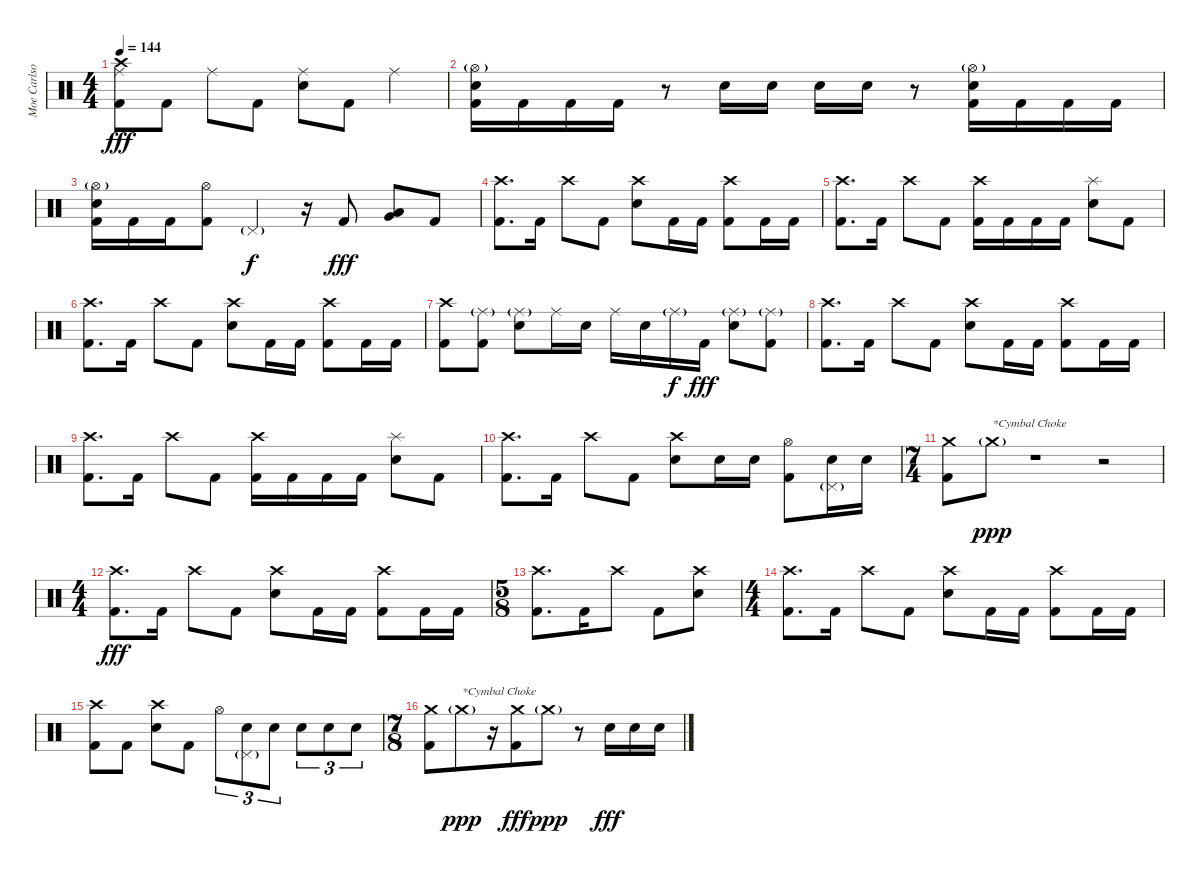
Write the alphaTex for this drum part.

\track ("Moe Carlson" "Moe Carlso") {solo instrument percussion}
\staff {score}
\articulation defaults
\ts (4 4)
\tempo 144
\clef neutral
\ks c
("Crash high (hit)" "Ride (middle)" "Kick (hit) 2").8{dy fff} "Kick (hit) 2".8 "Ride (middle)".8 "Kick (hit) 2".8 ("Ride (middle)" "Electric Snare (hit)").8 "Kick (hit) 2".8 "Ride (middle)".4 |
("Hi-Hat (open)"{g} "Electric Snare (hit)" "Kick (hit) 2").16 "Kick (hit) 2".16 "Kick (hit) 2".16 "Kick (hit) 2".16 r.8 "Electric Snare (hit)".16 "Electric Snare (hit)".16 "Electric Snare (hit)".16 "Electric Snare (hit)".16 r.8 ("Hi-Hat (open)"{g} "Electric Snare (hit)" "Kick (hit) 2").16 "Kick (hit) 2".16 "Kick (hit) 2".16 "Kick (hit) 2".16 |
("Hi-Hat (open)"{g} "Electric Snare (hit)" "Kick (hit) 2").16 "Kick (hit) 2".16 "Kick (hit) 2".16 ("Hi-Hat (open)" "Kick (hit) 2").8 "Pedal Hi-Hat (hit)"{g}.4{dy f} r.16 "Kick (hit) 2".8{dy fff} ("Very Low Tom (hit)" "Low Floor Tom (hit)").8 "Kick (hit) 2".8 |
("Crash high (hit)" "Kick (hit) 2").8{d} "Kick (hit) 2".16 "Crash high (hit)".8 "Kick (hit) 2".8 ("Crash high (hit)" "Electric Snare (hit)").8 "Kick (hit) 2".16 "Kick (hit) 2".16 ("Crash high (hit)" "Kick (hit) 2").8 "Kick (hit) 2".16 "Kick (hit) 2".16 |
("Crash high (hit)" "Kick (hit) 2").8{d} "Kick (hit) 2".16 "Crash high (hit)".8 "Kick (hit) 2".8 ("Crash high (hit)" "Kick (hit) 2").16 "Kick (hit) 2".16 "Kick (hit) 2".16 "Kick (hit) 2".16 ("Splash (hit)" "Electric Snare (hit)").8 "Kick (hit) 2".8 |
("Crash high (hit)" "Kick (hit) 2").8{d} "Kick (hit) 2".16 "Crash high (hit)".8 "Kick (hit) 2".8 ("Crash high (hit)" "Electric Snare (hit)").8 "Kick (hit) 2".16 "Kick (hit) 2".16 ("Crash high (hit)" "Kick (hit) 2").8 "Kick (hit) 2".16 "Kick (hit) 2".16 |
("Crash high (hit)" "Kick (hit) 2").8 ("Ride (middle)"{g} "Kick (hit) 2").8 ("Ride (middle)"{g} "Electric Snare (hit)").8 "Ride (middle)".16 "Electric Snare (hit)".16 "Ride (middle)".16 "Electric Snare (hit)".16 "Ride (middle)"{g}.16{dy f} "Kick (hit) 2".16{dy fff} ("Ride (middle)"{g} "Electric Snare (hit)").8 ("Ride (middle)"{g} "Kick (hit) 2").8 |
("Crash high (hit)" "Kick (hit) 2").8{d} "Kick (hit) 2".16 "Crash high (hit)".8 "Kick (hit) 2".8 ("Crash high (hit)" "Electric Snare (hit)").8 "Kick (hit) 2".16 "Kick (hit) 2".16 ("Crash high (hit)" "Kick (hit) 2").8 "Kick (hit) 2".16 "Kick (hit) 2".16 |
("Crash high (hit)" "Kick (hit) 2").8{d} "Kick (hit) 2".16 "Crash high (hit)".8 "Kick (hit) 2".8 ("Crash high (hit)" "Kick (hit) 2").16 "Kick (hit) 2".16 "Kick (hit) 2".16 "Kick (hit) 2".16 ("Splash (hit)" "Electric Snare (hit)").8 "Kick (hit) 2".8 |
("Crash high (hit)" "Kick (hit) 2").8{d} "Kick (hit) 2".16 "Crash high (hit)".8 "Kick (hit) 2".8 ("Crash high (hit)" "Electric Snare (hit)").8 "Electric Snare (hit)".16 "Electric Snare (hit)".16 ("Hi-Hat (open)" "Kick (hit) 2").8 ("Electric Snare (hit)" "Pedal Hi-Hat (hit)"{g}).16 "Electric Snare (hit)".16 |
\ts (7 4)
("Crash medium (hit)" "Kick (hit) 2").8 "Crash medium (hit)"{g}.8{txt "*Cymbal Choke" dy ppp} r.1 r.2 |
\ts (4 4)
("Crash high (hit)" "Kick (hit) 2").8{d dy fff} "Kick (hit) 2".16 "Crash high (hit)".8 "Kick (hit) 2".8 ("Crash high (hit)" "Electric Snare (hit)").8 "Kick (hit) 2".16 "Kick (hit) 2".16 ("Crash high (hit)" "Kick (hit) 2").8 "Kick (hit) 2".16 "Kick (hit) 2".16 |
\ts (5 8)
("Crash high (hit)" "Kick (hit) 2").8{d} "Kick (hit) 2".16 "Crash high (hit)".8 "Kick (hit) 2".8 ("Crash high (hit)" "Electric Snare (hit)").8 |
\ts (4 4)
("Crash high (hit)" "Kick (hit) 2").8{d} "Kick (hit) 2".16 "Crash high (hit)".8 "Kick (hit) 2".8 ("Crash high (hit)" "Electric Snare (hit)").8 "Kick (hit) 2".16 "Kick (hit) 2".16 ("Crash high (hit)" "Kick (hit) 2").8 "Kick (hit) 2".16 "Kick (hit) 2".16 |
("Crash high (hit)" "Kick (hit) 2").8 "Kick (hit) 2".8 ("Crash high (hit)" "Electric Snare (hit)").8 "Kick (hit) 2".8 "Hi-Hat (open)".8{tu (3 2)} ("Electric Snare (hit)" "Pedal Hi-Hat (hit)"{g}).8{tu (3 2)} "Electric Snare (hit)".8{tu (3 2)} "Electric Snare (hit)".8{tu (3 2)} "Electric Snare (hit)".8{tu (3 2)} "Electric Snare (hit)".8{tu (3 2)} |
\ts (7 8)
("Crash medium (hit)" "Kick (hit) 2").8 "Crash medium (hit)"{g}.8{txt "*Cymbal Choke" dy ppp} r.16 ("Crash medium (hit)" "Kick (hit) 2").8{dy fff} "Crash medium (hit)"{g}.8{dy ppp} r.8 "Electric Snare (hit)".16{dy fff} "Electric Snare (hit)".16 "Electric Snare (hit)".16
